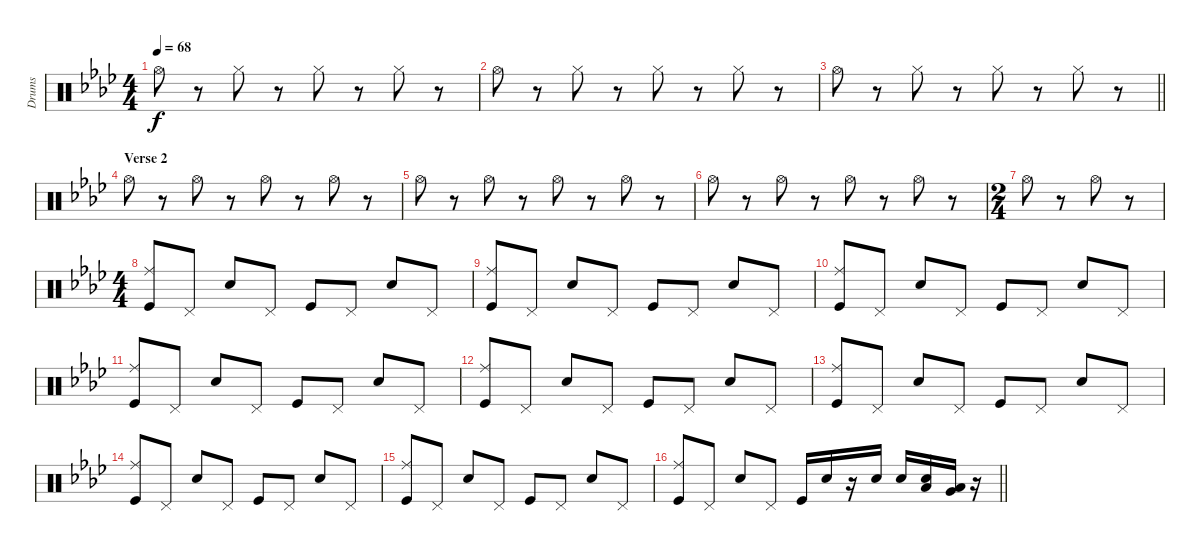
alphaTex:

\track ("Drums" "Drums") {instrument percussion}
\staff {score}
\articulation defaults
\ts (4 4)
\tempo 68
\clef neutral
\ks ab "Hi-Hat (open)".8{dy f}
r.8 "Hi-Hat (closed)".8 r.8 "Hi-Hat (closed)".8 r.8 "Hi-Hat (closed)".8 r.8 |
"Hi-Hat (open)".8 r.8 "Hi-Hat (closed)".8 r.8 "Hi-Hat (closed)".8 r.8 "Hi-Hat (closed)".8 r.8 |
\barLineRight lightlight "Hi-Hat (open)".8
r.8 "Hi-Hat (closed)".8 r.8 "Hi-Hat (closed)".8 r.8 "Hi-Hat (closed)".8 r.8 |
\section ("" "Verse 2")
"Hi-Hat (open)".8 r.8 "Hi-Hat (open)".8 r.8 "Hi-Hat (open)".8 r.8 "Hi-Hat (open)".8 r.8 |
"Hi-Hat (open)".8 r.8 "Hi-Hat (open)".8 r.8 "Hi-Hat (open)".8 r.8 "Hi-Hat (open)".8 r.8 |
"Hi-Hat (open)".8 r.8 "Hi-Hat (open)".8 r.8 "Hi-Hat (open)".8 r.8 "Hi-Hat (open)".8 r.8 |
\ts (2 4)
"Hi-Hat (open)".8 r.8 "Hi-Hat (open)".8 r.8 |
\ts (4 4)
("Kick (hit)" "Ride (middle)").8 "Pedal Hi-Hat (hit)".8 "Snare (hit) 2".8 "Pedal Hi-Hat (hit)".8 "Kick (hit)".8 "Pedal Hi-Hat (hit)".8 "Snare (hit) 2".8 "Pedal Hi-Hat (hit)".8 |
("Kick (hit)" "Ride (middle)").8 "Pedal Hi-Hat (hit)".8 "Snare (hit) 2".8 "Pedal Hi-Hat (hit)".8 "Kick (hit)".8 "Pedal Hi-Hat (hit)".8 "Snare (hit) 2".8 "Pedal Hi-Hat (hit)".8 |
("Kick (hit)" "Ride (middle)").8 "Pedal Hi-Hat (hit)".8 "Snare (hit) 2".8 "Pedal Hi-Hat (hit)".8 "Kick (hit)".8 "Pedal Hi-Hat (hit)".8 "Snare (hit) 2".8 "Pedal Hi-Hat (hit)".8 |
("Kick (hit)" "Ride (middle)").8 "Pedal Hi-Hat (hit)".8 "Snare (hit) 2".8 "Pedal Hi-Hat (hit)".8 "Kick (hit)".8 "Pedal Hi-Hat (hit)".8 "Snare (hit) 2".8 "Pedal Hi-Hat (hit)".8 |
("Kick (hit)" "Ride (middle)").8 "Pedal Hi-Hat (hit)".8 "Snare (hit) 2".8 "Pedal Hi-Hat (hit)".8 "Kick (hit)".8 "Pedal Hi-Hat (hit)".8 "Snare (hit) 2".8 "Pedal Hi-Hat (hit)".8 |
("Kick (hit)" "Ride (middle)").8 "Pedal Hi-Hat (hit)".8 "Snare (hit) 2".8 "Pedal Hi-Hat (hit)".8 "Kick (hit)".8 "Pedal Hi-Hat (hit)".8 "Snare (hit) 2".8 "Pedal Hi-Hat (hit)".8 |
("Kick (hit)" "Ride (middle)").8 "Pedal Hi-Hat (hit)".8 "Snare (hit) 2".8 "Pedal Hi-Hat (hit)".8 "Kick (hit)".8 "Pedal Hi-Hat (hit)".8 "Snare (hit) 2".8 "Pedal Hi-Hat (hit)".8 |
("Kick (hit)" "Ride (middle)").8 "Pedal Hi-Hat (hit)".8 "Snare (hit) 2".8 "Pedal Hi-Hat (hit)".8 "Kick (hit)".8 "Pedal Hi-Hat (hit)".8 "Snare (hit) 2".8 "Pedal Hi-Hat (hit)".8 |
\barLineRight lightlight
("Kick (hit)" "Ride (middle)").8 "Pedal Hi-Hat (hit)".8 "Snare (hit) 2".8 "Pedal Hi-Hat (hit)".8 "Kick (hit)".16 "Snare (hit) 2".16 r.16 "Snare (hit) 2".16 "Snare (hit) 2".16 ("Low Tom (hit)" "Snare (hit) 2").16 ("Very Low Tom (hit)" "Low Tom (hit)").16 r.16
